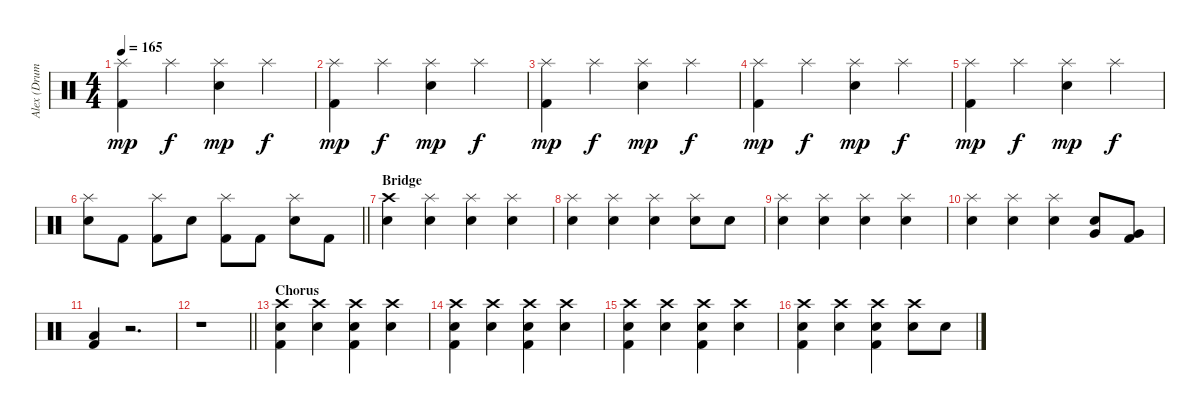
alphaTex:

\track ("Alex (Drums)" "Alex (Drum") {instrument percussion}
\staff {score}
\articulation defaults
\ts (4 4)
\tempo 165
\clef neutral
\ks c
("Splash (hit)" "Kick (hit) 2").4{dy mp} "Splash (hit)".4{dy f} ("Splash (hit)" "Snare (hit) 2").4{dy mp} "Splash (hit)".4{dy f} |
("Splash (hit)" "Kick (hit) 2").4{dy mp} "Splash (hit)".4{dy f} ("Splash (hit)" "Snare (hit) 2").4{dy mp} "Splash (hit)".4{dy f} |
("Splash (hit)" "Kick (hit) 2").4{dy mp} "Splash (hit)".4{dy f} ("Splash (hit)" "Snare (hit) 2").4{dy mp} "Splash (hit)".4{dy f} |
("Splash (hit)" "Kick (hit) 2").4{dy mp} "Splash (hit)".4{dy f} ("Splash (hit)" "Snare (hit) 2").4{dy mp} "Splash (hit)".4{dy f} |
("Splash (hit)" "Kick (hit) 2").4{dy mp} "Splash (hit)".4{dy f} ("Splash (hit)" "Snare (hit) 2").4{dy mp} "Splash (hit)".4{dy f} |
\barLineRight lightlight
("Splash (hit)" "Snare (hit) 2").8 "Kick (hit) 2".8 ("Splash (hit)" "Kick (hit) 2").8 "Snare (hit) 2".8 ("Splash (hit)" "Kick (hit) 2").8 "Kick (hit) 2".8 ("Splash (hit)" "Snare (hit) 2").8 "Kick (hit) 2".8 |
\section ("" "Bridge")
("Crash high (hit)" "Snare (hit) 2").4 ("Splash (hit)" "Snare (hit) 2").4 ("Splash (hit)" "Snare (hit) 2").4 ("Splash (hit)" "Snare (hit) 2").4 |
("Splash (hit)" "Snare (hit) 2").4 ("Splash (hit)" "Snare (hit) 2").4 ("Splash (hit)" "Snare (hit) 2").4 ("Splash (hit)" "Snare (hit) 2").8 "Snare (hit) 2".8 |
("Splash (hit)" "Snare (hit) 2").4 ("Splash (hit)" "Snare (hit) 2").4 ("Splash (hit)" "Snare (hit) 2").4 ("Splash (hit)" "Snare (hit) 2").4 |
("Splash (hit)" "Snare (hit) 2").4 ("Splash (hit)" "Snare (hit) 2").4 ("Splash (hit)" "Snare (hit) 2").4 ("Very Low Tom (hit)" "Snare (hit) 2").8 ("Very Low Tom (hit)" "Kick (hit) 2").8 |
("Low Floor Tom (hit)" "Kick (hit) 2").4 r.2{d} |
\barLineRight lightlight
r.1 |
\section ("" "Chorus")
("Crash high (hit)" "Snare (hit) 2" "Kick (hit) 2").4 ("Crash high (hit)" "Snare (hit) 2").4 ("Crash high (hit)" "Snare (hit) 2" "Kick (hit) 2").4 ("Crash high (hit)" "Snare (hit) 2").4 |
("Crash high (hit)" "Snare (hit) 2" "Kick (hit) 2").4 ("Crash high (hit)" "Snare (hit) 2").4 ("Crash high (hit)" "Snare (hit) 2" "Kick (hit) 2").4 ("Crash high (hit)" "Snare (hit) 2").4 |
("Crash high (hit)" "Snare (hit) 2" "Kick (hit) 2").4 ("Crash high (hit)" "Snare (hit) 2").4 ("Crash high (hit)" "Snare (hit) 2" "Kick (hit) 2").4 ("Crash high (hit)" "Snare (hit) 2").4 |
("Crash high (hit)" "Snare (hit) 2" "Kick (hit) 2").4 ("Crash high (hit)" "Snare (hit) 2").4 ("Crash high (hit)" "Snare (hit) 2" "Kick (hit) 2").4 ("Crash high (hit)" "Snare (hit) 2").8 "Snare (hit) 2".8
